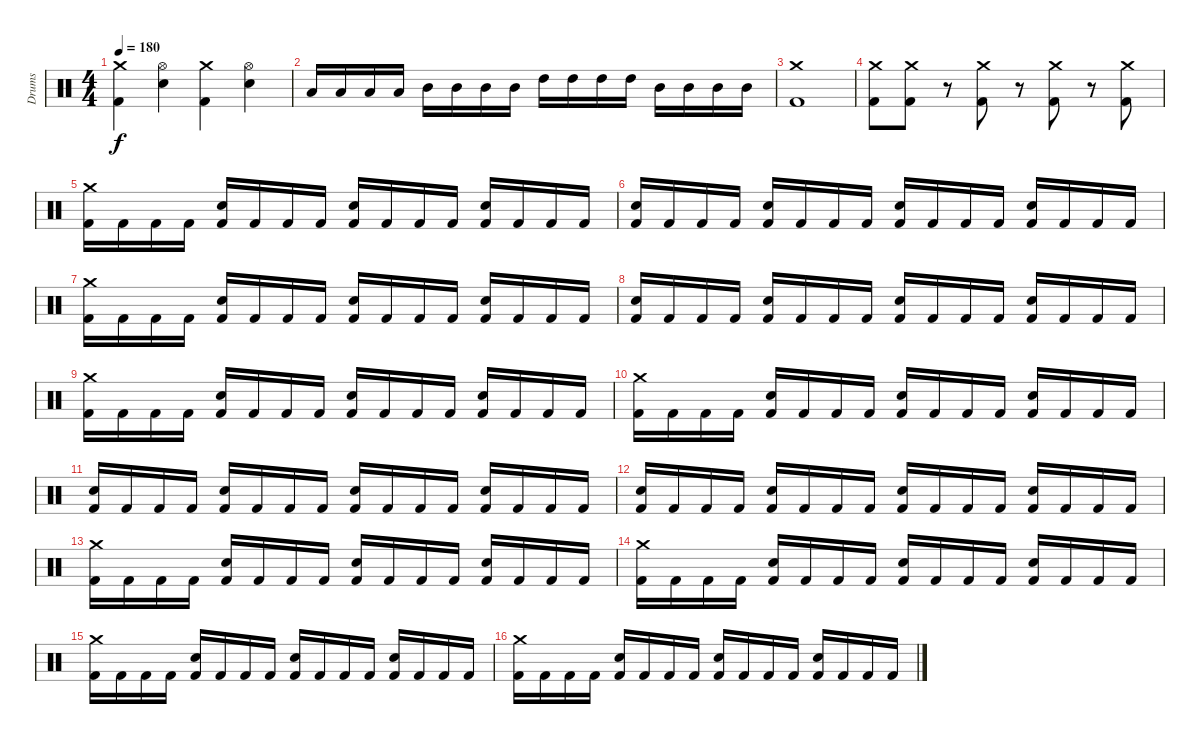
\track ("Drums" "Drums") {instrument percussion}
\staff {score}
\articulation defaults
\ts (4 4)
\tempo 180
\clef neutral
\ks c
("Crash medium (hit)" "Kick (hit) 2").4{dy f} ("Hi-Hat (open)" "Snare (hit) 2").4 ("Crash medium (hit)" "Kick (hit) 2").4 ("Hi-Hat (open)" "Snare (hit) 2").4 |
"Low Tom (hit)".16 "Low Tom (hit)".16 "Low Tom (hit)".16 "Low Tom (hit)".16 "Mid Tom (hit)".16 "Mid Tom (hit)".16 "Mid Tom (hit)".16 "Mid Tom (hit)".16 "High Tom (hit)".16 "High Tom (hit)".16 "High Tom (hit)".16 "High Tom (hit)".16 "Mid Tom (hit)".16 "Mid Tom (hit)".16 "Mid Tom (hit)".16 "Mid Tom (hit)".16 |
("Crash medium (hit)" "Kick (hit) 2").1 |
("Crash medium (hit)" "Kick (hit) 2").8 ("Crash medium (hit)" "Kick (hit) 2").8 r.8 ("Crash medium (hit)" "Kick (hit) 2").8 r.8 ("Crash medium (hit)" "Kick (hit) 2").8 r.8 ("Crash medium (hit)" "Kick (hit) 2").8 |
("Crash medium (hit)" "Kick (hit) 2").16 "Kick (hit) 2".16 "Kick (hit) 2".16 "Kick (hit) 2".16 ("Snare (hit) 2" "Kick (hit) 2").16 "Kick (hit) 2".16 "Kick (hit) 2".16 "Kick (hit) 2".16 ("Snare (hit) 2" "Kick (hit) 2").16 "Kick (hit) 2".16 "Kick (hit) 2".16 "Kick (hit) 2".16 ("Snare (hit) 2" "Kick (hit) 2").16 "Kick (hit) 2".16 "Kick (hit) 2".16 "Kick (hit) 2".16 |
("Snare (hit) 2" "Kick (hit) 2").16 "Kick (hit) 2".16 "Kick (hit) 2".16 "Kick (hit) 2".16 ("Snare (hit) 2" "Kick (hit) 2").16 "Kick (hit) 2".16 "Kick (hit) 2".16 "Kick (hit) 2".16 ("Snare (hit) 2" "Kick (hit) 2").16 "Kick (hit) 2".16 "Kick (hit) 2".16 "Kick (hit) 2".16 ("Snare (hit) 2" "Kick (hit) 2").16 "Kick (hit) 2".16 "Kick (hit) 2".16 "Kick (hit) 2".16 |
("Crash medium (hit)" "Kick (hit) 2").16 "Kick (hit) 2".16 "Kick (hit) 2".16 "Kick (hit) 2".16 ("Snare (hit) 2" "Kick (hit) 2").16 "Kick (hit) 2".16 "Kick (hit) 2".16 "Kick (hit) 2".16 ("Snare (hit) 2" "Kick (hit) 2").16 "Kick (hit) 2".16 "Kick (hit) 2".16 "Kick (hit) 2".16 ("Snare (hit) 2" "Kick (hit) 2").16 "Kick (hit) 2".16 "Kick (hit) 2".16 "Kick (hit) 2".16 |
("Snare (hit) 2" "Kick (hit) 2").16 "Kick (hit) 2".16 "Kick (hit) 2".16 "Kick (hit) 2".16 ("Snare (hit) 2" "Kick (hit) 2").16 "Kick (hit) 2".16 "Kick (hit) 2".16 "Kick (hit) 2".16 ("Snare (hit) 2" "Kick (hit) 2").16 "Kick (hit) 2".16 "Kick (hit) 2".16 "Kick (hit) 2".16 ("Snare (hit) 2" "Kick (hit) 2").16 "Kick (hit) 2".16 "Kick (hit) 2".16 "Kick (hit) 2".16 |
("Crash medium (hit)" "Kick (hit) 2").16 "Kick (hit) 2".16 "Kick (hit) 2".16 "Kick (hit) 2".16 ("Snare (hit) 2" "Kick (hit) 2").16 "Kick (hit) 2".16 "Kick (hit) 2".16 "Kick (hit) 2".16 ("Snare (hit) 2" "Kick (hit) 2").16 "Kick (hit) 2".16 "Kick (hit) 2".16 "Kick (hit) 2".16 ("Snare (hit) 2" "Kick (hit) 2").16 "Kick (hit) 2".16 "Kick (hit) 2".16 "Kick (hit) 2".16 |
("Crash medium (hit)" "Kick (hit) 2").16 "Kick (hit) 2".16 "Kick (hit) 2".16 "Kick (hit) 2".16 ("Snare (hit) 2" "Kick (hit) 2").16 "Kick (hit) 2".16 "Kick (hit) 2".16 "Kick (hit) 2".16 ("Snare (hit) 2" "Kick (hit) 2").16 "Kick (hit) 2".16 "Kick (hit) 2".16 "Kick (hit) 2".16 ("Snare (hit) 2" "Kick (hit) 2").16 "Kick (hit) 2".16 "Kick (hit) 2".16 "Kick (hit) 2".16 |
("Snare (hit) 2" "Kick (hit) 2").16 "Kick (hit) 2".16 "Kick (hit) 2".16 "Kick (hit) 2".16 ("Snare (hit) 2" "Kick (hit) 2").16 "Kick (hit) 2".16 "Kick (hit) 2".16 "Kick (hit) 2".16 ("Snare (hit) 2" "Kick (hit) 2").16 "Kick (hit) 2".16 "Kick (hit) 2".16 "Kick (hit) 2".16 ("Snare (hit) 2" "Kick (hit) 2").16 "Kick (hit) 2".16 "Kick (hit) 2".16 "Kick (hit) 2".16 |
("Snare (hit) 2" "Kick (hit) 2").16 "Kick (hit) 2".16 "Kick (hit) 2".16 "Kick (hit) 2".16 ("Snare (hit) 2" "Kick (hit) 2").16 "Kick (hit) 2".16 "Kick (hit) 2".16 "Kick (hit) 2".16 ("Snare (hit) 2" "Kick (hit) 2").16 "Kick (hit) 2".16 "Kick (hit) 2".16 "Kick (hit) 2".16 ("Snare (hit) 2" "Kick (hit) 2").16 "Kick (hit) 2".16 "Kick (hit) 2".16 "Kick (hit) 2".16 |
("Crash medium (hit)" "Kick (hit) 2").16 "Kick (hit) 2".16 "Kick (hit) 2".16 "Kick (hit) 2".16 ("Snare (hit) 2" "Kick (hit) 2").16 "Kick (hit) 2".16 "Kick (hit) 2".16 "Kick (hit) 2".16 ("Snare (hit) 2" "Kick (hit) 2").16 "Kick (hit) 2".16 "Kick (hit) 2".16 "Kick (hit) 2".16 ("Snare (hit) 2" "Kick (hit) 2").16 "Kick (hit) 2".16 "Kick (hit) 2".16 "Kick (hit) 2".16 |
("Crash medium (hit)" "Kick (hit) 2").16 "Kick (hit) 2".16 "Kick (hit) 2".16 "Kick (hit) 2".16 ("Snare (hit) 2" "Kick (hit) 2").16 "Kick (hit) 2".16 "Kick (hit) 2".16 "Kick (hit) 2".16 ("Snare (hit) 2" "Kick (hit) 2").16 "Kick (hit) 2".16 "Kick (hit) 2".16 "Kick (hit) 2".16 ("Snare (hit) 2" "Kick (hit) 2").16 "Kick (hit) 2".16 "Kick (hit) 2".16 "Kick (hit) 2".16 |
("Crash medium (hit)" "Kick (hit) 2").16 "Kick (hit) 2".16 "Kick (hit) 2".16 "Kick (hit) 2".16 ("Snare (hit) 2" "Kick (hit) 2").16 "Kick (hit) 2".16 "Kick (hit) 2".16 "Kick (hit) 2".16 ("Snare (hit) 2" "Kick (hit) 2").16 "Kick (hit) 2".16 "Kick (hit) 2".16 "Kick (hit) 2".16 ("Snare (hit) 2" "Kick (hit) 2").16 "Kick (hit) 2".16 "Kick (hit) 2".16 "Kick (hit) 2".16 |
("Crash medium (hit)" "Kick (hit) 2").16 "Kick (hit) 2".16 "Kick (hit) 2".16 "Kick (hit) 2".16 ("Snare (hit) 2" "Kick (hit) 2").16 "Kick (hit) 2".16 "Kick (hit) 2".16 "Kick (hit) 2".16 ("Snare (hit) 2" "Kick (hit) 2").16 "Kick (hit) 2".16 "Kick (hit) 2".16 "Kick (hit) 2".16 ("Snare (hit) 2" "Kick (hit) 2").16 "Kick (hit) 2".16 "Kick (hit) 2".16 "Kick (hit) 2".16
